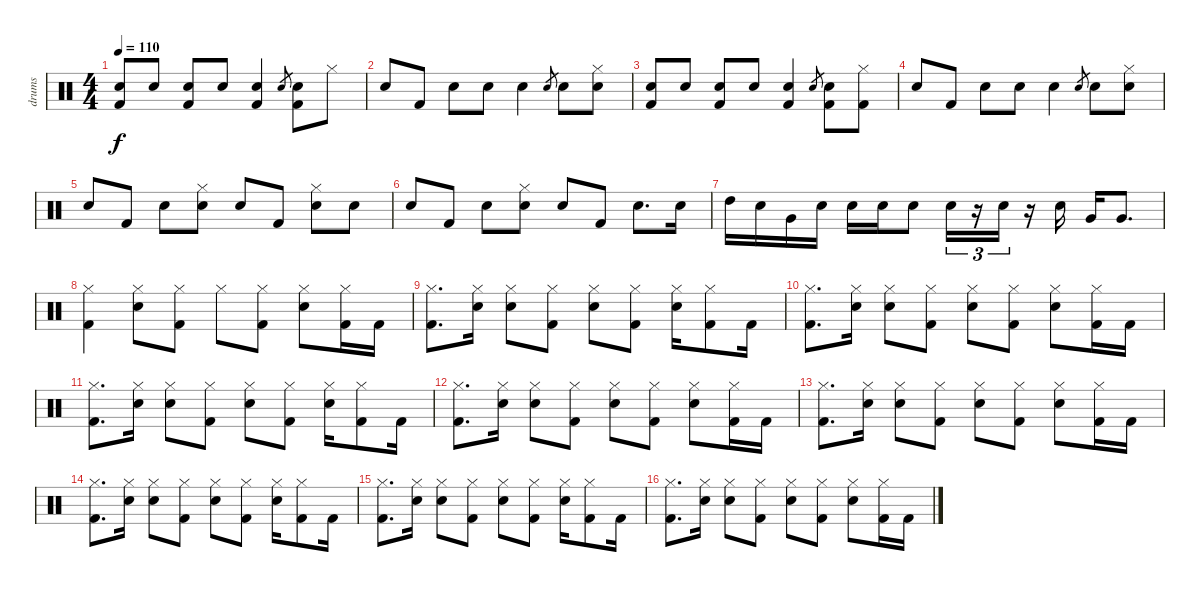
\track ("drums" "drums") {instrument percussion}
\staff {score}
\articulation defaults
\ts (4 4)
\tempo 110
\clef neutral
\ks c
("Kick (hit) 2" "Snare (hit) 2").8{dy f} "Snare (hit) 2".8 ("Kick (hit) 2" "Snare (hit) 2").8 "Snare (hit) 2".8 ("Snare (hit) 2" "Kick (hit) 2").4 "Snare (hit) 2".8{gr} ("Snare (hit) 2" "Kick (hit) 2").8 "Hi-Hat (closed)".8 |
"Snare (hit) 2".8 "Kick (hit) 2".8 "Snare (hit) 2".8 "Snare (hit) 2".8 "Snare (hit) 2".4 "Snare (hit) 2".8{gr} "Snare (hit) 2".8 ("Snare (hit) 2" "Hi-Hat (closed)").8 |
("Kick (hit) 2" "Snare (hit) 2").8 "Snare (hit) 2".8 ("Kick (hit) 2" "Snare (hit) 2").8 "Snare (hit) 2".8 ("Snare (hit) 2" "Kick (hit) 2").4 "Snare (hit) 2".8{gr} ("Snare (hit) 2" "Kick (hit) 2").8 ("Kick (hit) 2" "Hi-Hat (closed)").8 |
"Snare (hit) 2".8 "Kick (hit) 2".8 "Snare (hit) 2".8 "Snare (hit) 2".8 "Snare (hit) 2".4 "Snare (hit) 2".8{gr} "Snare (hit) 2".8 ("Snare (hit) 2" "Hi-Hat (closed)").8 |
"Snare (hit) 2".8 "Kick (hit) 2".8 "Snare (hit) 2".8 ("Hi-Hat (closed)" "Snare (hit) 2").8 "Snare (hit) 2".8 "Kick (hit) 2".8 ("Snare (hit) 2" "Hi-Hat (closed)").8 "Snare (hit) 2".8 |
"Snare (hit) 2".8 "Kick (hit) 2".8 "Snare (hit) 2".8 ("Hi-Hat (closed)" "Snare (hit) 2").8 "Snare (hit) 2".8 "Kick (hit) 2".8 "Snare (hit) 2".8{d} "Snare (hit) 2".16 |
"High Tom (hit)".16 "Snare (hit) 2".16 "Very Low Tom (hit)".16 "Snare (hit) 2".16 "Snare (hit) 2".16 "Snare (hit) 2".16 "Snare (hit) 2".8 "Snare (hit) 2".16{tu (3 2)} r.16{tu (3 2)} "Snare (hit) 2".16{tu (3 2)} r.16 "Snare (hit) 2".16 "Very Low Tom (hit)".16 "Very Low Tom (hit)".8{d} |
("Kick (hit) 2" "Hi-Hat (closed)").4 ("Snare (hit) 2" "Hi-Hat (closed)").8 ("Hi-Hat (closed)" "Kick (hit) 2").8 "Hi-Hat (closed)".8 ("Kick (hit) 2" "Hi-Hat (closed)").8 ("Hi-Hat (closed)" "Snare (hit) 2").8 ("Hi-Hat (closed)" "Kick (hit) 2").16 "Kick (hit) 2".16 |
("Kick (hit) 2" "Hi-Hat (closed)").8{d} ("Snare (hit) 2" "Hi-Hat (closed)").16 ("Hi-Hat (closed)" "Snare (hit) 2").8 ("Hi-Hat (closed)" "Kick (hit) 2").8 ("Snare (hit) 2" "Hi-Hat (closed)").8 ("Hi-Hat (closed)" "Kick (hit) 2").8 ("Hi-Hat (closed)" "Snare (hit) 2").16 ("Hi-Hat (closed)" "Kick (hit) 2").8 "Kick (hit) 2".16 |
("Hi-Hat (closed)" "Kick (hit) 2").8{d} ("Snare (hit) 2" "Hi-Hat (closed)").16 ("Snare (hit) 2" "Hi-Hat (closed)").8 ("Kick (hit) 2" "Hi-Hat (closed)").8 ("Hi-Hat (closed)" "Snare (hit) 2").8 ("Hi-Hat (closed)" "Kick (hit) 2").8 ("Hi-Hat (closed)" "Snare (hit) 2").8 ("Hi-Hat (closed)" "Kick (hit) 2").16 "Kick (hit) 2".16 |
("Kick (hit) 2" "Hi-Hat (closed)").8{d} ("Snare (hit) 2" "Hi-Hat (closed)").16 ("Hi-Hat (closed)" "Snare (hit) 2").8 ("Hi-Hat (closed)" "Kick (hit) 2").8 ("Snare (hit) 2" "Hi-Hat (closed)").8 ("Hi-Hat (closed)" "Kick (hit) 2").8 ("Hi-Hat (closed)" "Snare (hit) 2").16 ("Hi-Hat (closed)" "Kick (hit) 2").8 "Kick (hit) 2".16 |
("Hi-Hat (closed)" "Kick (hit) 2").8{d} ("Snare (hit) 2" "Hi-Hat (closed)").16 ("Snare (hit) 2" "Hi-Hat (closed)").8 ("Kick (hit) 2" "Hi-Hat (closed)").8 ("Hi-Hat (closed)" "Snare (hit) 2").8 ("Hi-Hat (closed)" "Kick (hit) 2").8 ("Hi-Hat (closed)" "Snare (hit) 2").8 ("Hi-Hat (closed)" "Kick (hit) 2").16 "Kick (hit) 2".16 |
("Hi-Hat (closed)" "Kick (hit) 2").8{d} ("Snare (hit) 2" "Hi-Hat (closed)").16 ("Snare (hit) 2" "Hi-Hat (closed)").8 ("Kick (hit) 2" "Hi-Hat (closed)").8 ("Hi-Hat (closed)" "Snare (hit) 2").8 ("Hi-Hat (closed)" "Kick (hit) 2").8 ("Hi-Hat (closed)" "Snare (hit) 2").8 ("Hi-Hat (closed)" "Kick (hit) 2").16 "Kick (hit) 2".16 |
("Kick (hit) 2" "Hi-Hat (closed)").8{d} ("Snare (hit) 2" "Hi-Hat (closed)").16 ("Hi-Hat (closed)" "Snare (hit) 2").8 ("Hi-Hat (closed)" "Kick (hit) 2").8 ("Snare (hit) 2" "Hi-Hat (closed)").8 ("Hi-Hat (closed)" "Kick (hit) 2").8 ("Hi-Hat (closed)" "Snare (hit) 2").16 ("Hi-Hat (closed)" "Kick (hit) 2").8 "Kick (hit) 2".16 |
("Kick (hit) 2" "Hi-Hat (closed)").8{d} ("Snare (hit) 2" "Hi-Hat (closed)").16 ("Hi-Hat (closed)" "Snare (hit) 2").8 ("Hi-Hat (closed)" "Kick (hit) 2").8 ("Snare (hit) 2" "Hi-Hat (closed)").8 ("Hi-Hat (closed)" "Kick (hit) 2").8 ("Hi-Hat (closed)" "Snare (hit) 2").16 ("Hi-Hat (closed)" "Kick (hit) 2").8 "Kick (hit) 2".16 |
("Hi-Hat (closed)" "Kick (hit) 2").8{d} ("Snare (hit) 2" "Hi-Hat (closed)").16 ("Snare (hit) 2" "Hi-Hat (closed)").8 ("Kick (hit) 2" "Hi-Hat (closed)").8 ("Hi-Hat (closed)" "Snare (hit) 2").8 ("Hi-Hat (closed)" "Kick (hit) 2").8 ("Hi-Hat (closed)" "Snare (hit) 2").8 ("Hi-Hat (closed)" "Kick (hit) 2").16 "Kick (hit) 2".16
